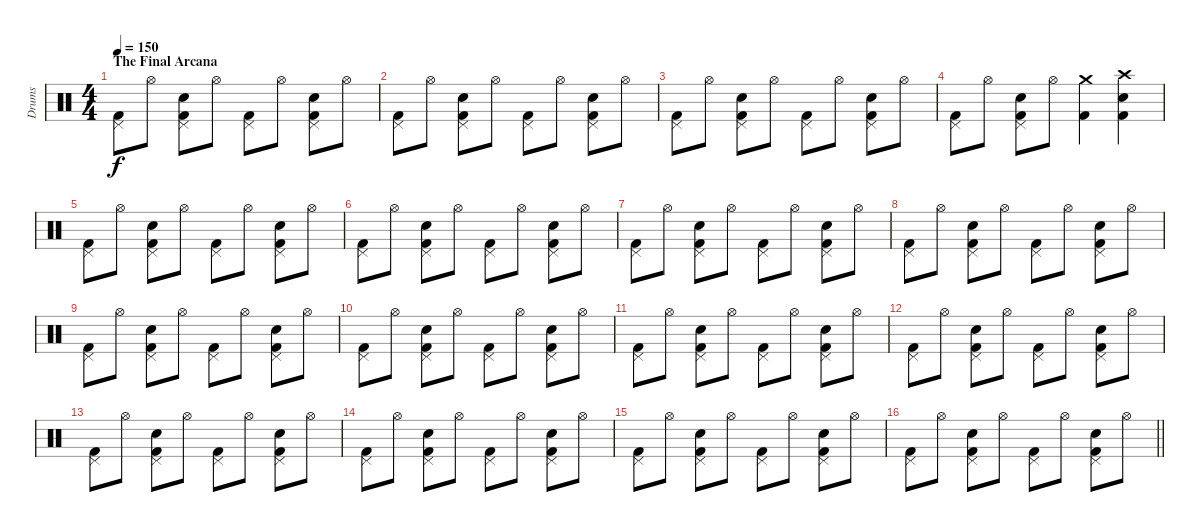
\track ("Drums" "Drums") {instrument percussion}
\staff {score}
\articulation defaults
\ts (4 4)
\section ("" "The Final Arcana")
\tempo 150
\clef neutral
\ks c
("Pedal Hi-Hat (hit)" "Kick (hit) 2").8{dy f} "Hi-Hat (open)".8 ("Pedal Hi-Hat (hit)" "Electric Snare (hit)" "Kick (hit) 2").8 "Hi-Hat (open)".8 ("Pedal Hi-Hat (hit)" "Kick (hit) 2").8 "Hi-Hat (open)".8 ("Pedal Hi-Hat (hit)" "Electric Snare (hit)" "Kick (hit) 2").8 "Hi-Hat (open)".8 |
("Pedal Hi-Hat (hit)" "Kick (hit) 2").8 "Hi-Hat (open)".8 ("Pedal Hi-Hat (hit)" "Electric Snare (hit)" "Kick (hit) 2").8 "Hi-Hat (open)".8 ("Pedal Hi-Hat (hit)" "Kick (hit) 2").8 "Hi-Hat (open)".8 ("Pedal Hi-Hat (hit)" "Electric Snare (hit)" "Kick (hit) 2").8 "Hi-Hat (open)".8 |
("Pedal Hi-Hat (hit)" "Kick (hit) 2").8 "Hi-Hat (open)".8 ("Pedal Hi-Hat (hit)" "Electric Snare (hit)" "Kick (hit) 2").8 "Hi-Hat (open)".8 ("Pedal Hi-Hat (hit)" "Kick (hit) 2").8 "Hi-Hat (open)".8 ("Pedal Hi-Hat (hit)" "Electric Snare (hit)" "Kick (hit) 2").8 "Hi-Hat (open)".8 |
("Pedal Hi-Hat (hit)" "Kick (hit) 2").8 "Hi-Hat (open)".8 ("Pedal Hi-Hat (hit)" "Electric Snare (hit)" "Kick (hit) 2").8 "Hi-Hat (open)".8 ("Crash medium (hit)" "Kick (hit) 2").4 ("Crash high (hit)" "Electric Snare (hit)" "Kick (hit) 2").4 |
("Pedal Hi-Hat (hit)" "Kick (hit) 2").8 "Hi-Hat (open)".8 ("Pedal Hi-Hat (hit)" "Electric Snare (hit)" "Kick (hit) 2").8 "Hi-Hat (open)".8 ("Pedal Hi-Hat (hit)" "Kick (hit) 2").8 "Hi-Hat (open)".8 ("Pedal Hi-Hat (hit)" "Electric Snare (hit)" "Kick (hit) 2").8 "Hi-Hat (open)".8 |
("Pedal Hi-Hat (hit)" "Kick (hit) 2").8 "Hi-Hat (open)".8 ("Pedal Hi-Hat (hit)" "Electric Snare (hit)" "Kick (hit) 2").8 "Hi-Hat (open)".8 ("Pedal Hi-Hat (hit)" "Kick (hit) 2").8 "Hi-Hat (open)".8 ("Pedal Hi-Hat (hit)" "Electric Snare (hit)" "Kick (hit) 2").8 "Hi-Hat (open)".8 |
("Pedal Hi-Hat (hit)" "Kick (hit) 2").8 "Hi-Hat (open)".8 ("Pedal Hi-Hat (hit)" "Electric Snare (hit)" "Kick (hit) 2").8 "Hi-Hat (open)".8 ("Pedal Hi-Hat (hit)" "Kick (hit) 2").8 "Hi-Hat (open)".8 ("Pedal Hi-Hat (hit)" "Electric Snare (hit)" "Kick (hit) 2").8 "Hi-Hat (open)".8 |
("Pedal Hi-Hat (hit)" "Kick (hit) 2").8 "Hi-Hat (open)".8 ("Pedal Hi-Hat (hit)" "Electric Snare (hit)" "Kick (hit) 2").8 "Hi-Hat (open)".8 ("Pedal Hi-Hat (hit)" "Kick (hit) 2").8 "Hi-Hat (open)".8 ("Pedal Hi-Hat (hit)" "Electric Snare (hit)" "Kick (hit) 2").8 "Hi-Hat (open)".8 |
("Pedal Hi-Hat (hit)" "Kick (hit) 2").8 "Hi-Hat (open)".8 ("Pedal Hi-Hat (hit)" "Electric Snare (hit)" "Kick (hit) 2").8 "Hi-Hat (open)".8 ("Pedal Hi-Hat (hit)" "Kick (hit) 2").8 "Hi-Hat (open)".8 ("Pedal Hi-Hat (hit)" "Electric Snare (hit)" "Kick (hit) 2").8 "Hi-Hat (open)".8 |
("Pedal Hi-Hat (hit)" "Kick (hit) 2").8 "Hi-Hat (open)".8 ("Pedal Hi-Hat (hit)" "Electric Snare (hit)" "Kick (hit) 2").8 "Hi-Hat (open)".8 ("Pedal Hi-Hat (hit)" "Kick (hit) 2").8 "Hi-Hat (open)".8 ("Pedal Hi-Hat (hit)" "Electric Snare (hit)" "Kick (hit) 2").8 "Hi-Hat (open)".8 |
("Pedal Hi-Hat (hit)" "Kick (hit) 2").8 "Hi-Hat (open)".8 ("Pedal Hi-Hat (hit)" "Electric Snare (hit)" "Kick (hit) 2").8 "Hi-Hat (open)".8 ("Pedal Hi-Hat (hit)" "Kick (hit) 2").8 "Hi-Hat (open)".8 ("Pedal Hi-Hat (hit)" "Electric Snare (hit)" "Kick (hit) 2").8 "Hi-Hat (open)".8 |
("Pedal Hi-Hat (hit)" "Kick (hit) 2").8 "Hi-Hat (open)".8 ("Pedal Hi-Hat (hit)" "Electric Snare (hit)" "Kick (hit) 2").8 "Hi-Hat (open)".8 ("Pedal Hi-Hat (hit)" "Kick (hit) 2").8 "Hi-Hat (open)".8 ("Pedal Hi-Hat (hit)" "Electric Snare (hit)" "Kick (hit) 2").8 "Hi-Hat (open)".8 |
("Pedal Hi-Hat (hit)" "Kick (hit) 2").8 "Hi-Hat (open)".8 ("Pedal Hi-Hat (hit)" "Electric Snare (hit)" "Kick (hit) 2").8 "Hi-Hat (open)".8 ("Pedal Hi-Hat (hit)" "Kick (hit) 2").8 "Hi-Hat (open)".8 ("Pedal Hi-Hat (hit)" "Electric Snare (hit)" "Kick (hit) 2").8 "Hi-Hat (open)".8 |
("Pedal Hi-Hat (hit)" "Kick (hit) 2").8 "Hi-Hat (open)".8 ("Pedal Hi-Hat (hit)" "Electric Snare (hit)" "Kick (hit) 2").8 "Hi-Hat (open)".8 ("Pedal Hi-Hat (hit)" "Kick (hit) 2").8 "Hi-Hat (open)".8 ("Pedal Hi-Hat (hit)" "Electric Snare (hit)" "Kick (hit) 2").8 "Hi-Hat (open)".8 |
("Pedal Hi-Hat (hit)" "Kick (hit) 2").8 "Hi-Hat (open)".8 ("Pedal Hi-Hat (hit)" "Electric Snare (hit)" "Kick (hit) 2").8 "Hi-Hat (open)".8 ("Pedal Hi-Hat (hit)" "Kick (hit) 2").8 "Hi-Hat (open)".8 ("Pedal Hi-Hat (hit)" "Electric Snare (hit)" "Kick (hit) 2").8 "Hi-Hat (open)".8 |
\barLineRight lightlight
("Pedal Hi-Hat (hit)" "Kick (hit) 2").8 "Hi-Hat (open)".8 ("Pedal Hi-Hat (hit)" "Electric Snare (hit)" "Kick (hit) 2").8 "Hi-Hat (open)".8 ("Pedal Hi-Hat (hit)" "Kick (hit) 2").8 "Hi-Hat (open)".8 ("Pedal Hi-Hat (hit)" "Electric Snare (hit)" "Kick (hit) 2").8 "Hi-Hat (open)".8
